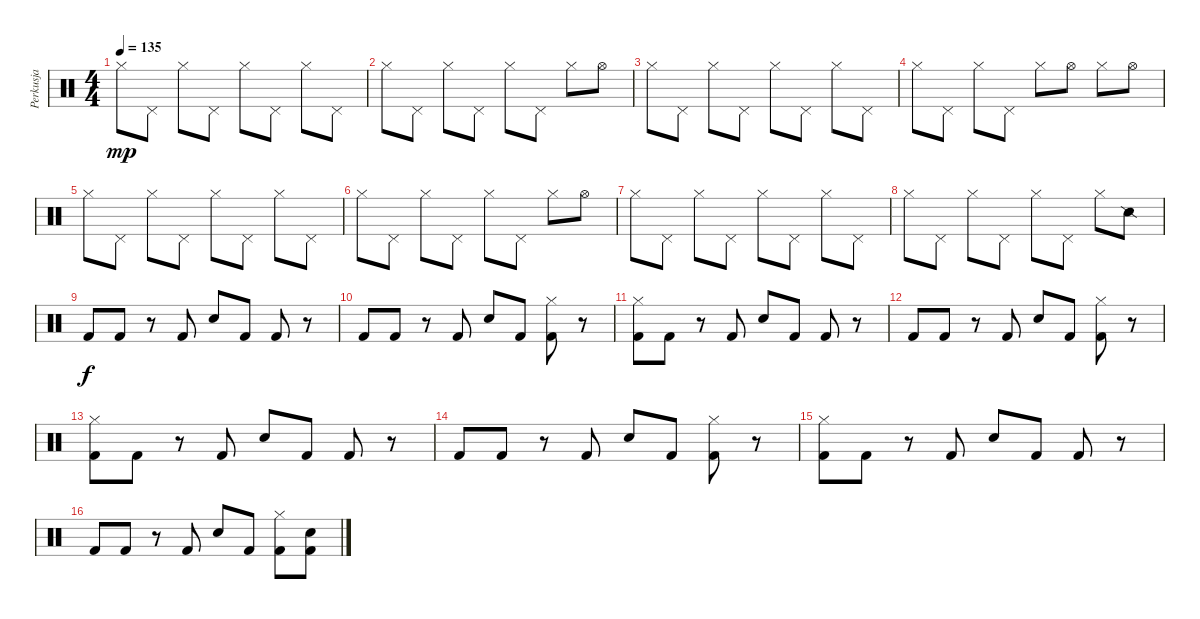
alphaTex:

\track ("Perkusja" "Perkusja") {instrument percussion}
\staff {score}
\articulation defaults
\ts (4 4)
\tempo 135
\clef neutral
\ks c "Hi-Hat (closed)".8{dy mp} "Pedal Hi-Hat (hit)".8 "Hi-Hat (closed)".8 "Pedal Hi-Hat (hit)".8 "Hi-Hat (closed)".8 "Pedal Hi-Hat (hit)".8 "Hi-Hat (closed)".8 "Pedal Hi-Hat (hit)".8
|
"Hi-Hat (closed)".8 "Pedal Hi-Hat (hit)".8 "Hi-Hat (closed)".8 "Pedal Hi-Hat (hit)".8 "Hi-Hat (closed)".8 "Pedal Hi-Hat (hit)".8 "Hi-Hat (closed)".8 "Hi-Hat (open)".8 |
"Hi-Hat (closed)".8 "Pedal Hi-Hat (hit)".8 "Hi-Hat (closed)".8 "Pedal Hi-Hat (hit)".8 "Hi-Hat (closed)".8 "Pedal Hi-Hat (hit)".8 "Hi-Hat (closed)".8 "Pedal Hi-Hat (hit)".8 |
"Hi-Hat (closed)".8 "Pedal Hi-Hat (hit)".8 "Hi-Hat (closed)".8 "Pedal Hi-Hat (hit)".8 "Hi-Hat (closed)".8 "Hi-Hat (open)".8 "Hi-Hat (closed)".8 "Hi-Hat (open)".8 |
"Hi-Hat (closed)".8 "Pedal Hi-Hat (hit)".8 "Hi-Hat (closed)".8 "Pedal Hi-Hat (hit)".8 "Hi-Hat (closed)".8 "Pedal Hi-Hat (hit)".8 "Hi-Hat (closed)".8 "Pedal Hi-Hat (hit)".8 |
"Hi-Hat (closed)".8 "Pedal Hi-Hat (hit)".8 "Hi-Hat (closed)".8 "Pedal Hi-Hat (hit)".8 "Hi-Hat (closed)".8 "Pedal Hi-Hat (hit)".8 "Hi-Hat (closed)".8 "Hi-Hat (open)".8 |
"Hi-Hat (closed)".8 "Pedal Hi-Hat (hit)".8 "Hi-Hat (closed)".8 "Pedal Hi-Hat (hit)".8 "Hi-Hat (closed)".8 "Pedal Hi-Hat (hit)".8 "Hi-Hat (closed)".8 "Pedal Hi-Hat (hit)".8 |
"Hi-Hat (closed)".8 "Pedal Hi-Hat (hit)".8 "Hi-Hat (closed)".8 "Pedal Hi-Hat (hit)".8 "Hi-Hat (closed)".8 "Pedal Hi-Hat (hit)".8 "Hi-Hat (closed)".8 "Snare (side stick) 2".8 |
"Kick (hit) 2".8{dy f} "Kick (hit) 2".8 r.8 "Kick (hit) 2".8 "Snare (hit) 2".8 "Kick (hit) 2".8 "Kick (hit) 2".8 r.8 |
"Kick (hit) 2".8 "Kick (hit) 2".8 r.8 "Kick (hit) 2".8 "Snare (hit) 2".8 "Kick (hit) 2".8 ("Hi-Hat (closed)" "Kick (hit) 2").8 r.8 |
("Hi-Hat (closed)" "Kick (hit) 2").8 "Kick (hit) 2".8 r.8 "Kick (hit) 2".8 "Snare (hit) 2".8 "Kick (hit) 2".8 "Kick (hit) 2".8 r.8 |
"Kick (hit) 2".8 "Kick (hit) 2".8 r.8 "Kick (hit) 2".8 "Snare (hit) 2".8 "Kick (hit) 2".8 ("Hi-Hat (closed)" "Kick (hit) 2").8 r.8 |
("Hi-Hat (closed)" "Kick (hit) 2").8 "Kick (hit) 2".8 r.8 "Kick (hit) 2".8 "Snare (hit) 2".8 "Kick (hit) 2".8 "Kick (hit) 2".8 r.8 |
"Kick (hit) 2".8 "Kick (hit) 2".8 r.8 "Kick (hit) 2".8 "Snare (hit) 2".8 "Kick (hit) 2".8 ("Hi-Hat (closed)" "Kick (hit) 2").8 r.8 |
("Hi-Hat (closed)" "Kick (hit) 2").8 "Kick (hit) 2".8 r.8 "Kick (hit) 2".8 "Snare (hit) 2".8 "Kick (hit) 2".8 "Kick (hit) 2".8 r.8 |
"Kick (hit) 2".8 "Kick (hit) 2".8 r.8 "Kick (hit) 2".8 "Snare (hit) 2".8 "Kick (hit) 2".8 ("Hi-Hat (closed)" "Kick (hit) 2").8 ("Snare (hit) 2" "Kick (hit) 2").8
